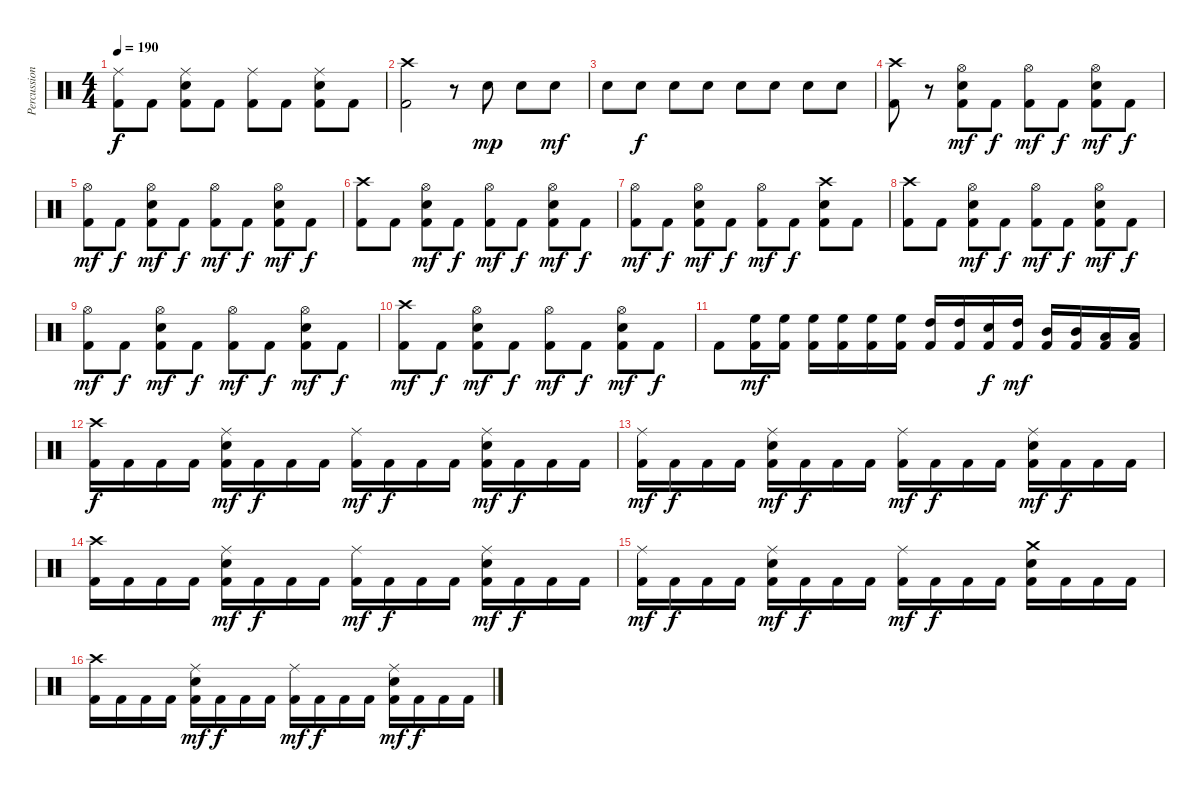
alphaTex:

\track ("Percussion" "Percussion") {instrument percussion}
\staff {score}
\articulation defaults
\ts (4 4)
\tempo 190
\clef neutral
\ks c
("Ride (middle)" "Kick (hit) 2").8{dy f} "Kick (hit) 2".8 ("Ride (middle)" "Snare (hit) 2" "Kick (hit) 2").8 "Kick (hit) 2".8 ("Ride (middle)" "Kick (hit) 2").8 "Kick (hit) 2".8 ("Ride (middle)" "Snare (hit) 2" "Kick (hit) 2").8 "Kick (hit) 2".8 |
("Crash high (hit)" "Kick (hit) 2").2 r.8 "Snare (hit) 2".8{dy mp} "Snare (hit) 2".8 "Snare (hit) 2".8{dy mf} |
"Snare (hit) 2".8 "Snare (hit) 2".8{dy f} "Snare (hit) 2".8 "Snare (hit) 2".8 "Snare (hit) 2".8 "Snare (hit) 2".8 "Snare (hit) 2".8 "Snare (hit) 2".8 |
("Crash high (hit)" "Kick (hit) 2").8 r.8 ("Hi-Hat (open)" "Snare (hit) 2" "Kick (hit) 2").8{dy mf} "Kick (hit) 2".8{dy f} ("Hi-Hat (open)" "Kick (hit) 2").8{dy mf} "Kick (hit) 2".8{dy f} ("Hi-Hat (open)" "Snare (hit) 2" "Kick (hit) 2").8{dy mf} "Kick (hit) 2".8{dy f} |
("Hi-Hat (open)" "Kick (hit) 2").8{dy mf} "Kick (hit) 2".8{dy f} ("Hi-Hat (open)" "Snare (hit) 2" "Kick (hit) 2").8{dy mf} "Kick (hit) 2".8{dy f} ("Hi-Hat (open)" "Kick (hit) 2").8{dy mf} "Kick (hit) 2".8{dy f} ("Hi-Hat (open)" "Snare (hit) 2" "Kick (hit) 2").8{dy mf} "Kick (hit) 2".8{dy f} |
("Crash high (hit)" "Kick (hit) 2").8 "Kick (hit) 2".8 ("Hi-Hat (open)" "Snare (hit) 2" "Kick (hit) 2").8{dy mf} "Kick (hit) 2".8{dy f} ("Hi-Hat (open)" "Kick (hit) 2").8{dy mf} "Kick (hit) 2".8{dy f} ("Hi-Hat (open)" "Snare (hit) 2" "Kick (hit) 2").8{dy mf} "Kick (hit) 2".8{dy f} |
("Hi-Hat (open)" "Kick (hit) 2").8{dy mf} "Kick (hit) 2".8{dy f} ("Hi-Hat (open)" "Snare (hit) 2" "Kick (hit) 2").8{dy mf} "Kick (hit) 2".8{dy f} ("Hi-Hat (open)" "Kick (hit) 2").8{dy mf} "Kick (hit) 2".8{dy f} ("Crash high (hit)" "Snare (hit) 2" "Kick (hit) 2").8 "Kick (hit) 2".8 |
("Crash high (hit)" "Kick (hit) 2").8 "Kick (hit) 2".8 ("Hi-Hat (open)" "Snare (hit) 2" "Kick (hit) 2").8{dy mf} "Kick (hit) 2".8{dy f} ("Hi-Hat (open)" "Kick (hit) 2").8{dy mf} "Kick (hit) 2".8{dy f} ("Hi-Hat (open)" "Snare (hit) 2" "Kick (hit) 2").8{dy mf} "Kick (hit) 2".8{dy f} |
("Hi-Hat (open)" "Kick (hit) 2").8{dy mf} "Kick (hit) 2".8{dy f} ("Hi-Hat (open)" "Snare (hit) 2" "Kick (hit) 2").8{dy mf} "Kick (hit) 2".8{dy f} ("Hi-Hat (open)" "Kick (hit) 2").8{dy mf} "Kick (hit) 2".8{dy f} ("Hi-Hat (open)" "Snare (hit) 2" "Kick (hit) 2").8{dy mf} "Kick (hit) 2".8{dy f} |
("Crash high (hit)" "Kick (hit) 2").8{dy mf} "Kick (hit) 2".8{dy f} ("Hi-Hat (open)" "Snare (hit) 2" "Kick (hit) 2").8{dy mf} "Kick (hit) 2".8{dy f} ("Hi-Hat (open)" "Kick (hit) 2").8{dy mf} "Kick (hit) 2".8{dy f} ("Hi-Hat (open)" "Snare (hit) 2" "Kick (hit) 2").8{dy mf} "Kick (hit) 2".8{dy f} |
"Kick (hit) 2".8 ("High Floor Tom (hit)" "Kick (hit) 2").16{dy mf} ("High Floor Tom (hit)" "Kick (hit) 2").16 ("High Floor Tom (hit)" "Kick (hit) 2").16 ("High Floor Tom (hit)" "Kick (hit) 2").16 ("High Floor Tom (hit)" "Kick (hit) 2").16 ("High Floor Tom (hit)" "Kick (hit) 2").16 ("High Tom (hit)" "Kick (hit) 2").16 ("High Tom (hit)" "Kick (hit) 2").16 ("Snare (hit) 2" "Kick (hit) 2").16{dy f} ("High Tom (hit)" "Kick (hit) 2").16{dy mf} ("Mid Tom (hit)" "Kick (hit) 2").16 ("Mid Tom (hit)" "Kick (hit) 2").16 ("Low Tom (hit)" "Kick (hit) 2").16 ("Low Tom (hit)" "Kick (hit) 2").16 |
("Crash high (hit)" "Kick (hit) 2").16{dy f} "Kick (hit) 2".16 "Kick (hit) 2".16 "Kick (hit) 2".16 ("Ride (middle)" "Snare (hit) 2" "Kick (hit) 2").16{dy mf} "Kick (hit) 2".16{dy f} "Kick (hit) 2".16 "Kick (hit) 2".16 ("Ride (middle)" "Kick (hit) 2").16{dy mf} "Kick (hit) 2".16{dy f} "Kick (hit) 2".16 "Kick (hit) 2".16 ("Ride (middle)" "Snare (hit) 2" "Kick (hit) 2").16{dy mf} "Kick (hit) 2".16{dy f} "Kick (hit) 2".16 "Kick (hit) 2".16 |
("Ride (middle)" "Kick (hit) 2").16{dy mf} "Kick (hit) 2".16{dy f} "Kick (hit) 2".16 "Kick (hit) 2".16 ("Ride (middle)" "Snare (hit) 2" "Kick (hit) 2").16{dy mf} "Kick (hit) 2".16{dy f} "Kick (hit) 2".16 "Kick (hit) 2".16 ("Ride (middle)" "Kick (hit) 2").16{dy mf} "Kick (hit) 2".16{dy f} "Kick (hit) 2".16 "Kick (hit) 2".16 ("Ride (middle)" "Snare (hit) 2" "Kick (hit) 2").16{dy mf} "Kick (hit) 2".16{dy f} "Kick (hit) 2".16 "Kick (hit) 2".16 |
("Crash high (hit)" "Kick (hit) 2").16 "Kick (hit) 2".16 "Kick (hit) 2".16 "Kick (hit) 2".16 ("Ride (middle)" "Snare (hit) 2" "Kick (hit) 2").16{dy mf} "Kick (hit) 2".16{dy f} "Kick (hit) 2".16 "Kick (hit) 2".16 ("Ride (middle)" "Kick (hit) 2").16{dy mf} "Kick (hit) 2".16{dy f} "Kick (hit) 2".16 "Kick (hit) 2".16 ("Ride (middle)" "Snare (hit) 2" "Kick (hit) 2").16{dy mf} "Kick (hit) 2".16{dy f} "Kick (hit) 2".16 "Kick (hit) 2".16 |
("Ride (middle)" "Kick (hit) 2").16{dy mf} "Kick (hit) 2".16{dy f} "Kick (hit) 2".16 "Kick (hit) 2".16 ("Ride (middle)" "Snare (hit) 2" "Kick (hit) 2").16{dy mf} "Kick (hit) 2".16{dy f} "Kick (hit) 2".16 "Kick (hit) 2".16 ("Ride (middle)" "Kick (hit) 2").16{dy mf} "Kick (hit) 2".16{dy f} "Kick (hit) 2".16 "Kick (hit) 2".16 ("Crash medium (hit)" "Snare (hit) 2" "Kick (hit) 2").16 "Kick (hit) 2".16 "Kick (hit) 2".16 "Kick (hit) 2".16 |
("Crash high (hit)" "Kick (hit) 2").16 "Kick (hit) 2".16 "Kick (hit) 2".16 "Kick (hit) 2".16 ("Ride (middle)" "Snare (hit) 2" "Kick (hit) 2").16{dy mf} "Kick (hit) 2".16{dy f} "Kick (hit) 2".16 "Kick (hit) 2".16 ("Ride (middle)" "Kick (hit) 2").16{dy mf} "Kick (hit) 2".16{dy f} "Kick (hit) 2".16 "Kick (hit) 2".16 ("Ride (middle)" "Snare (hit) 2" "Kick (hit) 2").16{dy mf} "Kick (hit) 2".16{dy f} "Kick (hit) 2".16 "Kick (hit) 2".16
